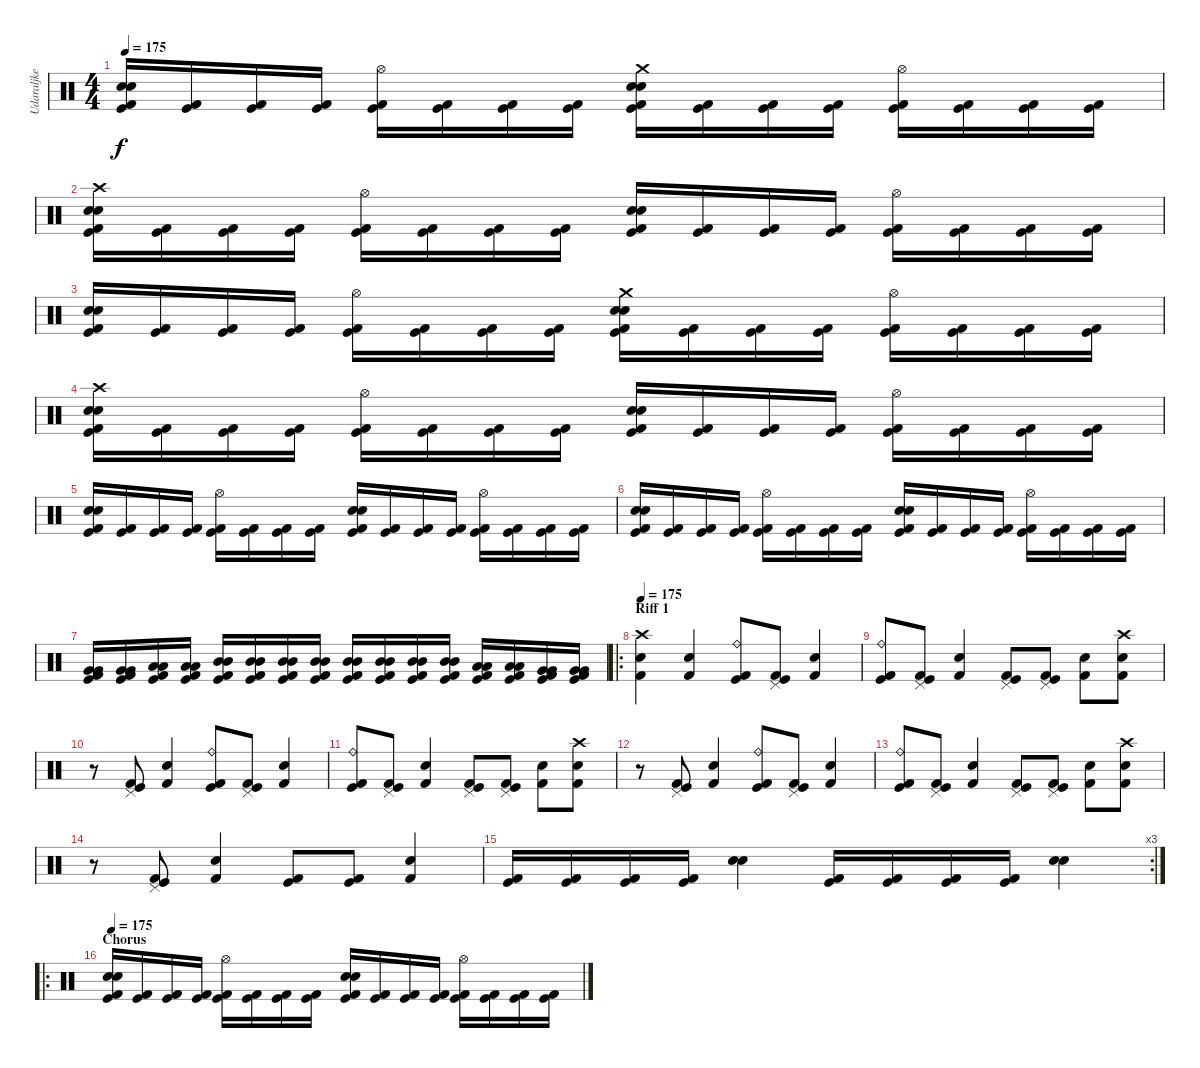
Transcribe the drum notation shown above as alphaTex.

\track ("Udaraljke" "Udaraljke") {instrument percussion}
\staff {score}
\articulation defaults
\ts (4 4)
\tempo 175
\clef neutral
\ks c
("Electric Snare (hit)" "Snare (hit) 2" "Kick (hit) 2" "Kick (hit)").16{dy f} ("Kick (hit) 2" "Kick (hit)").16 ("Kick (hit) 2" "Kick (hit)").16 ("Kick (hit) 2" "Kick (hit)").16 ("Hi-Hat (open)" "Kick (hit) 2" "Kick (hit)").16 ("Kick (hit) 2" "Kick (hit)").16 ("Kick (hit) 2" "Kick (hit)").16 ("Kick (hit) 2" "Kick (hit)").16 ("Crash medium (hit)" "Electric Snare (hit)" "Snare (hit) 2" "Kick (hit) 2" "Kick (hit)").16 ("Kick (hit) 2" "Kick (hit)").16 ("Kick (hit) 2" "Kick (hit)").16 ("Kick (hit) 2" "Kick (hit)").16 ("Hi-Hat (open)" "Kick (hit) 2" "Kick (hit)").16 ("Kick (hit) 2" "Kick (hit)").16 ("Kick (hit) 2" "Kick (hit)").16 ("Kick (hit) 2" "Kick (hit)").16 |
("Crash high (hit)" "Electric Snare (hit)" "Snare (hit) 2" "Kick (hit) 2" "Kick (hit)").16 ("Kick (hit) 2" "Kick (hit)").16 ("Kick (hit) 2" "Kick (hit)").16 ("Kick (hit) 2" "Kick (hit)").16 ("Hi-Hat (open)" "Kick (hit) 2" "Kick (hit)").16 ("Kick (hit) 2" "Kick (hit)").16 ("Kick (hit) 2" "Kick (hit)").16 ("Kick (hit) 2" "Kick (hit)").16 ("Electric Snare (hit)" "Snare (hit) 2" "Kick (hit) 2" "Kick (hit)").16 ("Kick (hit) 2" "Kick (hit)").16 ("Kick (hit) 2" "Kick (hit)").16 ("Kick (hit) 2" "Kick (hit)").16 ("Hi-Hat (open)" "Kick (hit) 2" "Kick (hit)").16 ("Kick (hit) 2" "Kick (hit)").16 ("Kick (hit) 2" "Kick (hit)").16 ("Kick (hit) 2" "Kick (hit)").16 |
("Electric Snare (hit)" "Snare (hit) 2" "Kick (hit) 2" "Kick (hit)").16 ("Kick (hit) 2" "Kick (hit)").16 ("Kick (hit) 2" "Kick (hit)").16 ("Kick (hit) 2" "Kick (hit)").16 ("Hi-Hat (open)" "Kick (hit) 2" "Kick (hit)").16 ("Kick (hit) 2" "Kick (hit)").16 ("Kick (hit) 2" "Kick (hit)").16 ("Kick (hit) 2" "Kick (hit)").16 ("Crash medium (hit)" "Electric Snare (hit)" "Snare (hit) 2" "Kick (hit) 2" "Kick (hit)").16 ("Kick (hit) 2" "Kick (hit)").16 ("Kick (hit) 2" "Kick (hit)").16 ("Kick (hit) 2" "Kick (hit)").16 ("Hi-Hat (open)" "Kick (hit) 2" "Kick (hit)").16 ("Kick (hit) 2" "Kick (hit)").16 ("Kick (hit) 2" "Kick (hit)").16 ("Kick (hit) 2" "Kick (hit)").16 |
("Crash high (hit)" "Electric Snare (hit)" "Snare (hit) 2" "Kick (hit) 2" "Kick (hit)").16 ("Kick (hit) 2" "Kick (hit)").16 ("Kick (hit) 2" "Kick (hit)").16 ("Kick (hit) 2" "Kick (hit)").16 ("Hi-Hat (open)" "Kick (hit) 2" "Kick (hit)").16 ("Kick (hit) 2" "Kick (hit)").16 ("Kick (hit) 2" "Kick (hit)").16 ("Kick (hit) 2" "Kick (hit)").16 ("Electric Snare (hit)" "Snare (hit) 2" "Kick (hit) 2" "Kick (hit)").16 ("Kick (hit) 2" "Kick (hit)").16 ("Kick (hit) 2" "Kick (hit)").16 ("Kick (hit) 2" "Kick (hit)").16 ("Hi-Hat (open)" "Kick (hit) 2" "Kick (hit)").16 ("Kick (hit) 2" "Kick (hit)").16 ("Kick (hit) 2" "Kick (hit)").16 ("Kick (hit) 2" "Kick (hit)").16 |
("Electric Snare (hit)" "Snare (hit) 2" "Kick (hit) 2" "Kick (hit)").16 ("Kick (hit) 2" "Kick (hit)").16 ("Kick (hit) 2" "Kick (hit)").16 ("Kick (hit) 2" "Kick (hit)").16 ("Hi-Hat (open)" "Kick (hit) 2" "Kick (hit)").16 ("Kick (hit) 2" "Kick (hit)").16 ("Kick (hit) 2" "Kick (hit)").16 ("Kick (hit) 2" "Kick (hit)").16 ("Electric Snare (hit)" "Snare (hit) 2" "Kick (hit) 2" "Kick (hit)").16 ("Kick (hit) 2" "Kick (hit)").16 ("Kick (hit) 2" "Kick (hit)").16 ("Kick (hit) 2" "Kick (hit)").16 ("Hi-Hat (open)" "Kick (hit) 2" "Kick (hit)").16 ("Kick (hit) 2" "Kick (hit)").16 ("Kick (hit) 2" "Kick (hit)").16 ("Kick (hit) 2" "Kick (hit)").16 |
("Electric Snare (hit)" "Snare (hit) 2" "Kick (hit) 2" "Kick (hit)").16 ("Kick (hit) 2" "Kick (hit)").16 ("Kick (hit) 2" "Kick (hit)").16 ("Kick (hit) 2" "Kick (hit)").16 ("Hi-Hat (open)" "Kick (hit) 2" "Kick (hit)").16 ("Kick (hit) 2" "Kick (hit)").16 ("Kick (hit) 2" "Kick (hit)").16 ("Kick (hit) 2" "Kick (hit)").16 ("Electric Snare (hit)" "Snare (hit) 2" "Kick (hit) 2" "Kick (hit)").16 ("Kick (hit) 2" "Kick (hit)").16 ("Kick (hit) 2" "Kick (hit)").16 ("Kick (hit) 2" "Kick (hit)").16 ("Hi-Hat (open)" "Kick (hit) 2" "Kick (hit)").16 ("Kick (hit) 2" "Kick (hit)").16 ("Kick (hit) 2" "Kick (hit)").16 ("Kick (hit) 2" "Kick (hit)").16 |
("Very Low Tom (hit)" "Very Low Tom (hit)" "Kick (hit) 2" "Kick (hit)").16 ("Very Low Tom (hit)" "Very Low Tom (hit)" "Kick (hit) 2" "Kick (hit)").16 ("Low Tom (hit)" "Low Tom (hit)" "Kick (hit) 2" "Kick (hit)").16 ("Low Tom (hit)" "Low Tom (hit)" "Kick (hit) 2" "Kick (hit)").16 ("Mid Tom (hit)" "Mid Tom (hit)" "Kick (hit) 2" "Kick (hit)").16 ("Mid Tom (hit)" "Mid Tom (hit)" "Kick (hit) 2" "Kick (hit)").16 ("Mid Tom (hit)" "Mid Tom (hit)" "Kick (hit) 2" "Kick (hit)").16 ("Mid Tom (hit)" "Mid Tom (hit)" "Kick (hit) 2" "Kick (hit)").16 ("Mid Tom (hit)" "Mid Tom (hit)" "Kick (hit) 2" "Kick (hit)").16 ("Mid Tom (hit)" "Mid Tom (hit)" "Kick (hit) 2" "Kick (hit)").16 ("Mid Tom (hit)" "Mid Tom (hit)" "Kick (hit) 2" "Kick (hit)").16 ("Mid Tom (hit)" "Mid Tom (hit)" "Kick (hit) 2" "Kick (hit)").16 ("Low Tom (hit)" "Low Tom (hit)" "Kick (hit) 2" "Kick (hit)").16 ("Low Tom (hit)" "Low Tom (hit)" "Kick (hit) 2" "Kick (hit)").16 ("Very Low Tom (hit)" "Very Low Tom (hit)" "Kick (hit) 2" "Kick (hit)").16 ("Very Low Tom (hit)" "Very Low Tom (hit)" "Kick (hit) 2" "Kick (hit)").16 |
\ro
\section ("" "Riff 1")
\tempo 175
("Crash high (hit)" "Snare (hit) 2" "Kick (hit) 2").4 ("Electric Snare (hit)" "Kick (hit) 2").4 ("Ride (bell)" "Kick (hit) 2" "Kick (hit)").8 ("Pedal Hi-Hat (hit)" "Kick (hit) 2" "Kick (hit)").8 ("Electric Snare (hit)" "Kick (hit) 2").4 |
("Ride (bell)" "Kick (hit) 2" "Kick (hit)").8 ("Pedal Hi-Hat (hit)" "Kick (hit) 2" "Kick (hit)").8 ("Electric Snare (hit)" "Kick (hit) 2").4 ("Pedal Hi-Hat (hit)" "Kick (hit) 2" "Kick (hit)").8 ("Pedal Hi-Hat (hit)" "Kick (hit) 2" "Kick (hit)").8 ("Electric Snare (hit)" "Kick (hit) 2").8 ("Crash high (hit)" "Snare (hit) 2" "Kick (hit) 2").8 |
r.8 ("Pedal Hi-Hat (hit)" "Kick (hit) 2" "Kick (hit)").8 ("Electric Snare (hit)" "Kick (hit) 2").4 ("Ride (bell)" "Kick (hit) 2" "Kick (hit)").8 ("Pedal Hi-Hat (hit)" "Kick (hit) 2" "Kick (hit)").8 ("Electric Snare (hit)" "Kick (hit) 2").4 |
("Ride (bell)" "Kick (hit) 2" "Kick (hit)").8 ("Pedal Hi-Hat (hit)" "Kick (hit) 2" "Kick (hit)").8 ("Electric Snare (hit)" "Kick (hit) 2").4 ("Pedal Hi-Hat (hit)" "Kick (hit) 2" "Kick (hit)").8 ("Pedal Hi-Hat (hit)" "Kick (hit) 2" "Kick (hit)").8 ("Electric Snare (hit)" "Kick (hit) 2").8 ("Crash high (hit)" "Snare (hit) 2" "Kick (hit) 2").8 |
r.8 ("Pedal Hi-Hat (hit)" "Kick (hit) 2" "Kick (hit)").8 ("Electric Snare (hit)" "Kick (hit) 2").4 ("Ride (bell)" "Kick (hit) 2" "Kick (hit)").8 ("Pedal Hi-Hat (hit)" "Kick (hit) 2" "Kick (hit)").8 ("Electric Snare (hit)" "Kick (hit) 2").4 |
("Ride (bell)" "Kick (hit) 2" "Kick (hit)").8 ("Pedal Hi-Hat (hit)" "Kick (hit) 2" "Kick (hit)").8 ("Electric Snare (hit)" "Kick (hit) 2").4 ("Pedal Hi-Hat (hit)" "Kick (hit) 2" "Kick (hit)").8 ("Pedal Hi-Hat (hit)" "Kick (hit) 2" "Kick (hit)").8 ("Electric Snare (hit)" "Kick (hit) 2").8 ("Crash high (hit)" "Snare (hit) 2" "Kick (hit) 2").8 |
r.8 ("Pedal Hi-Hat (hit)" "Kick (hit) 2" "Kick (hit)").8 ("Electric Snare (hit)" "Kick (hit) 2").4 ("Kick (hit) 2" "Kick (hit)").8 ("Kick (hit) 2" "Kick (hit)").8 ("Electric Snare (hit)" "Kick (hit) 2").4 |
\rc 3
("Kick (hit) 2" "Kick (hit)").16 ("Kick (hit) 2" "Kick (hit)").16 ("Kick (hit) 2" "Kick (hit)").16 ("Kick (hit) 2" "Kick (hit)").16 ("Electric Snare (hit)" "Snare (hit) 2").4 ("Kick (hit) 2" "Kick (hit)").16 ("Kick (hit) 2" "Kick (hit)").16 ("Kick (hit) 2" "Kick (hit)").16 ("Kick (hit) 2" "Kick (hit)").16 ("Electric Snare (hit)" "Snare (hit) 2").4 |
\ro
\section ("" "Chorus")
\tempo 175
("Electric Snare (hit)" "Snare (hit) 2" "Kick (hit) 2" "Kick (hit)").16 ("Kick (hit) 2" "Kick (hit)").16 ("Kick (hit) 2" "Kick (hit)").16 ("Kick (hit) 2" "Kick (hit)").16 ("Hi-Hat (open)" "Kick (hit) 2" "Kick (hit)").16 ("Kick (hit) 2" "Kick (hit)").16 ("Kick (hit) 2" "Kick (hit)").16 ("Kick (hit) 2" "Kick (hit)").16 ("Electric Snare (hit)" "Snare (hit) 2" "Kick (hit) 2" "Kick (hit)").16 ("Kick (hit) 2" "Kick (hit)").16 ("Kick (hit) 2" "Kick (hit)").16 ("Kick (hit) 2" "Kick (hit)").16 ("Hi-Hat (open)" "Kick (hit) 2" "Kick (hit)").16 ("Kick (hit) 2" "Kick (hit)").16 ("Kick (hit) 2" "Kick (hit)").16 ("Kick (hit) 2" "Kick (hit)").16
